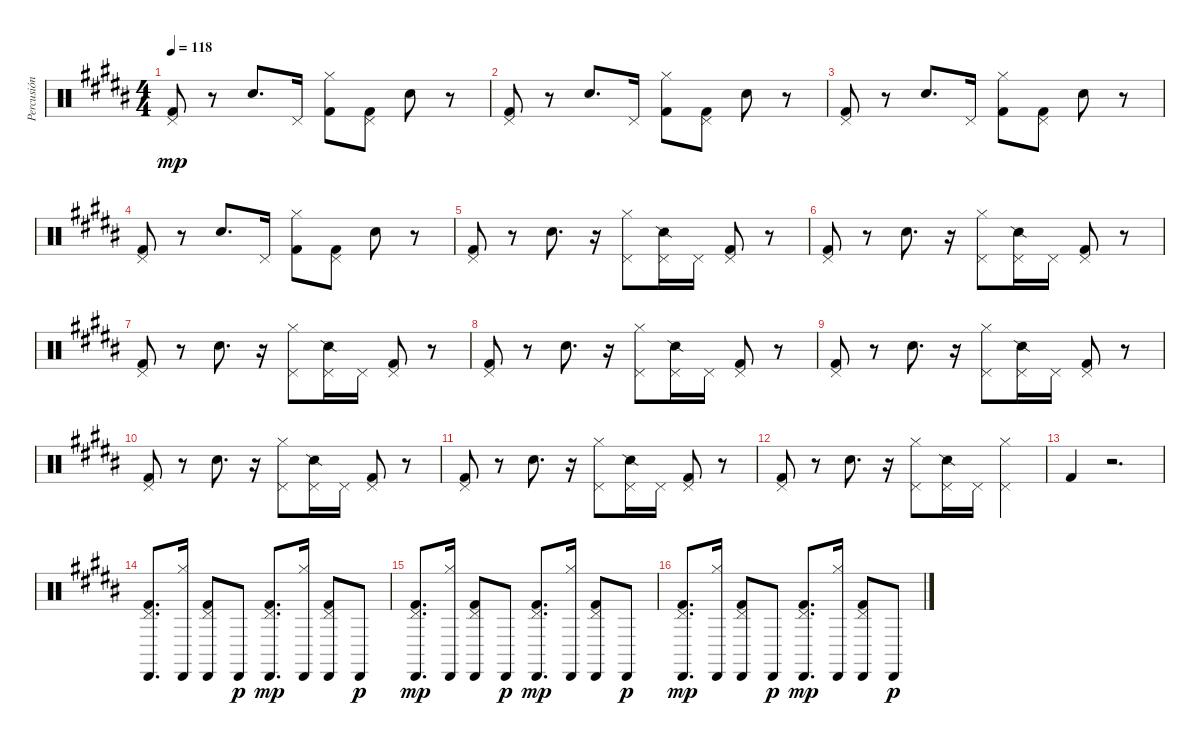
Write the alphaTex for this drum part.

\track ("Percusión" "Percusión") {instrument percussion}
\staff {score}
\articulation defaults
\ts (4 4)
\tempo 118
\clef neutral
\ks b
("Pedal Hi-Hat (hit)" "Kick (hit) 2").8{dy mp} r.8 "Snare (hit) 2".8{d} "Pedal Hi-Hat (hit)".16 ("Hi-Hat (closed)" "Kick (hit) 2").8 ("Pedal Hi-Hat (hit)" "Kick (hit) 2").8 "Snare (hit) 2".8 r.8 |
("Pedal Hi-Hat (hit)" "Kick (hit) 2").8 r.8 "Snare (hit) 2".8{d} "Pedal Hi-Hat (hit)".16 ("Hi-Hat (closed)" "Kick (hit) 2").8 ("Pedal Hi-Hat (hit)" "Kick (hit) 2").8 "Snare (hit) 2".8 r.8 |
("Pedal Hi-Hat (hit)" "Kick (hit) 2").8 r.8 "Snare (hit) 2".8{d} "Pedal Hi-Hat (hit)".16 ("Hi-Hat (closed)" "Kick (hit) 2").8 ("Pedal Hi-Hat (hit)" "Kick (hit) 2").8 "Snare (hit) 2".8 r.8 |
("Pedal Hi-Hat (hit)" "Kick (hit) 2").8 r.8 "Snare (hit) 2".8{d} "Pedal Hi-Hat (hit)".16 ("Hi-Hat (closed)" "Kick (hit) 2").8 ("Pedal Hi-Hat (hit)" "Kick (hit) 2").8 "Snare (hit) 2".8 r.8 |
("Pedal Hi-Hat (hit)" "Kick (hit) 2").8 r.8 "Snare (hit) 2".8{d} r.16 ("Pedal Hi-Hat (hit)" "Hi-Hat (closed)").8 ("Pedal Hi-Hat (hit)" "Snare (side stick) 2").16 "Pedal Hi-Hat (hit)".16 ("Pedal Hi-Hat (hit)" "Kick (hit) 2").8 r.8 |
("Pedal Hi-Hat (hit)" "Kick (hit) 2").8 r.8 "Snare (hit) 2".8{d} r.16 ("Pedal Hi-Hat (hit)" "Hi-Hat (closed)").8 ("Pedal Hi-Hat (hit)" "Snare (side stick) 2").16 "Pedal Hi-Hat (hit)".16 ("Pedal Hi-Hat (hit)" "Kick (hit) 2").8 r.8 |
("Pedal Hi-Hat (hit)" "Kick (hit) 2").8 r.8 "Snare (hit) 2".8{d} r.16 ("Pedal Hi-Hat (hit)" "Hi-Hat (closed)").8 ("Pedal Hi-Hat (hit)" "Snare (side stick) 2").16 "Pedal Hi-Hat (hit)".16 ("Pedal Hi-Hat (hit)" "Kick (hit) 2").8 r.8 |
("Pedal Hi-Hat (hit)" "Kick (hit) 2").8 r.8 "Snare (hit) 2".8{d} r.16 ("Pedal Hi-Hat (hit)" "Hi-Hat (closed)").8 ("Pedal Hi-Hat (hit)" "Snare (side stick) 2").16 "Pedal Hi-Hat (hit)".16 ("Pedal Hi-Hat (hit)" "Kick (hit) 2").8 r.8 |
("Pedal Hi-Hat (hit)" "Kick (hit) 2").8 r.8 "Snare (hit) 2".8{d} r.16 ("Pedal Hi-Hat (hit)" "Hi-Hat (closed)").8 ("Pedal Hi-Hat (hit)" "Snare (side stick) 2").16 "Pedal Hi-Hat (hit)".16 ("Pedal Hi-Hat (hit)" "Kick (hit) 2").8 r.8 |
("Pedal Hi-Hat (hit)" "Kick (hit) 2").8 r.8 "Snare (hit) 2".8{d} r.16 ("Pedal Hi-Hat (hit)" "Hi-Hat (closed)").8 ("Pedal Hi-Hat (hit)" "Snare (side stick) 2").16 "Pedal Hi-Hat (hit)".16 ("Pedal Hi-Hat (hit)" "Kick (hit) 2").8 r.8 |
("Pedal Hi-Hat (hit)" "Kick (hit) 2").8 r.8 "Snare (hit) 2".8{d} r.16 ("Pedal Hi-Hat (hit)" "Hi-Hat (closed)").8 ("Pedal Hi-Hat (hit)" "Snare (side stick) 2").16 "Pedal Hi-Hat (hit)".16 ("Pedal Hi-Hat (hit)" "Kick (hit) 2").8 r.8 |
("Pedal Hi-Hat (hit)" "Kick (hit) 2").8 r.8 "Snare (hit) 2".8{d} r.16 ("Pedal Hi-Hat (hit)" "Hi-Hat (closed)").8 ("Pedal Hi-Hat (hit)" "Snare (side stick) 2").16 "Pedal Hi-Hat (hit)".16 ("Pedal Hi-Hat (hit)" "Hi-Hat (closed)").4 |
"Kick (hit) 2".4 r.2{d} |
("Cabasa (hit)" "Pedal Hi-Hat (hit)" "Kick (hit) 2").8{d} ("Cabasa (hit)" "Hi-Hat (closed)").16 ("Cabasa (hit)" "Pedal Hi-Hat (hit)" "Kick (hit) 2").8 "Cabasa (hit)".8{dy p} ("Cabasa (hit)" "Pedal Hi-Hat (hit)" "Kick (hit) 2").8{d dy mp} ("Cabasa (hit)" "Hi-Hat (closed)").16 ("Cabasa (hit)" "Pedal Hi-Hat (hit)" "Kick (hit) 2").8 "Cabasa (hit)".8{dy p} |
("Cabasa (hit)" "Pedal Hi-Hat (hit)" "Kick (hit) 2").8{d dy mp} ("Cabasa (hit)" "Hi-Hat (closed)").16 ("Cabasa (hit)" "Pedal Hi-Hat (hit)" "Kick (hit) 2").8 "Cabasa (hit)".8{dy p} ("Cabasa (hit)" "Pedal Hi-Hat (hit)" "Kick (hit) 2").8{d dy mp} ("Cabasa (hit)" "Hi-Hat (closed)").16 ("Cabasa (hit)" "Pedal Hi-Hat (hit)" "Kick (hit) 2").8 "Cabasa (hit)".8{dy p} |
("Cabasa (hit)" "Pedal Hi-Hat (hit)" "Kick (hit) 2").8{d dy mp} ("Cabasa (hit)" "Hi-Hat (closed)").16 ("Cabasa (hit)" "Pedal Hi-Hat (hit)" "Kick (hit) 2").8 "Cabasa (hit)".8{dy p} ("Cabasa (hit)" "Pedal Hi-Hat (hit)" "Kick (hit) 2").8{d dy mp} ("Cabasa (hit)" "Hi-Hat (closed)").16 ("Cabasa (hit)" "Pedal Hi-Hat (hit)" "Kick (hit) 2").8 "Cabasa (hit)".8{dy p}
